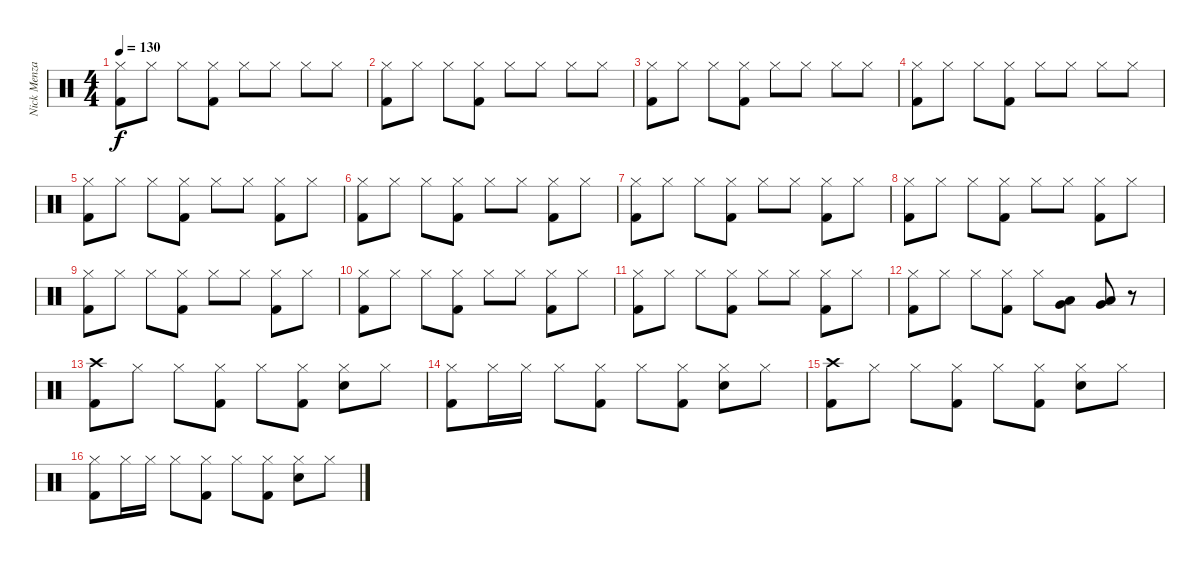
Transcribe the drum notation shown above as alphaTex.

\track ("Nick Menza" "Nick Menza") {instrument percussion}
\staff {score}
\articulation defaults
\ts (4 4)
\tempo 130
\clef neutral
\ks c
("Hi-Hat (closed)" "Kick (hit) 2").8{dy f} "Hi-Hat (closed)".8 "Hi-Hat (closed)".8 ("Hi-Hat (closed)" "Kick (hit) 2").8 "Hi-Hat (closed)".8 "Hi-Hat (closed)".8 "Hi-Hat (closed)".8 "Hi-Hat (closed)".8 |
("Hi-Hat (closed)" "Kick (hit) 2").8 "Hi-Hat (closed)".8 "Hi-Hat (closed)".8 ("Hi-Hat (closed)" "Kick (hit) 2").8 "Hi-Hat (closed)".8 "Hi-Hat (closed)".8 "Hi-Hat (closed)".8 "Hi-Hat (closed)".8 |
("Hi-Hat (closed)" "Kick (hit) 2").8 "Hi-Hat (closed)".8 "Hi-Hat (closed)".8 ("Hi-Hat (closed)" "Kick (hit) 2").8 "Hi-Hat (closed)".8 "Hi-Hat (closed)".8 "Hi-Hat (closed)".8 "Hi-Hat (closed)".8 |
("Hi-Hat (closed)" "Kick (hit) 2").8 "Hi-Hat (closed)".8 "Hi-Hat (closed)".8 ("Hi-Hat (closed)" "Kick (hit) 2").8 "Hi-Hat (closed)".8 "Hi-Hat (closed)".8 "Hi-Hat (closed)".8 "Hi-Hat (closed)".8 |
("Hi-Hat (closed)" "Kick (hit) 2").8 "Hi-Hat (closed)".8 "Hi-Hat (closed)".8 ("Hi-Hat (closed)" "Kick (hit) 2").8 "Hi-Hat (closed)".8 "Hi-Hat (closed)".8 ("Hi-Hat (closed)" "Kick (hit) 2").8 "Hi-Hat (closed)".8 |
("Hi-Hat (closed)" "Kick (hit) 2").8 "Hi-Hat (closed)".8 "Hi-Hat (closed)".8 ("Hi-Hat (closed)" "Kick (hit) 2").8 "Hi-Hat (closed)".8 "Hi-Hat (closed)".8 ("Hi-Hat (closed)" "Kick (hit) 2").8 "Hi-Hat (closed)".8 |
("Hi-Hat (closed)" "Kick (hit) 2").8 "Hi-Hat (closed)".8 "Hi-Hat (closed)".8 ("Hi-Hat (closed)" "Kick (hit) 2").8 "Hi-Hat (closed)".8 "Hi-Hat (closed)".8 ("Hi-Hat (closed)" "Kick (hit) 2").8 "Hi-Hat (closed)".8 |
("Hi-Hat (closed)" "Kick (hit) 2").8 "Hi-Hat (closed)".8 "Hi-Hat (closed)".8 ("Hi-Hat (closed)" "Kick (hit) 2").8 "Hi-Hat (closed)".8 "Hi-Hat (closed)".8 ("Hi-Hat (closed)" "Kick (hit) 2").8 "Hi-Hat (closed)".8 |
("Hi-Hat (closed)" "Kick (hit) 2").8 "Hi-Hat (closed)".8 "Hi-Hat (closed)".8 ("Hi-Hat (closed)" "Kick (hit) 2").8 "Hi-Hat (closed)".8 "Hi-Hat (closed)".8 ("Hi-Hat (closed)" "Kick (hit) 2").8 "Hi-Hat (closed)".8 |
("Hi-Hat (closed)" "Kick (hit) 2").8 "Hi-Hat (closed)".8 "Hi-Hat (closed)".8 ("Hi-Hat (closed)" "Kick (hit) 2").8 "Hi-Hat (closed)".8 "Hi-Hat (closed)".8 ("Hi-Hat (closed)" "Kick (hit) 2").8 "Hi-Hat (closed)".8 |
("Hi-Hat (closed)" "Kick (hit) 2").8 "Hi-Hat (closed)".8 "Hi-Hat (closed)".8 ("Hi-Hat (closed)" "Kick (hit) 2").8 "Hi-Hat (closed)".8 "Hi-Hat (closed)".8 ("Hi-Hat (closed)" "Kick (hit) 2").8 "Hi-Hat (closed)".8 |
("Hi-Hat (closed)" "Kick (hit) 2").8 "Hi-Hat (closed)".8 "Hi-Hat (closed)".8 ("Hi-Hat (closed)" "Kick (hit) 2").8 "Hi-Hat (closed)".8 ("Very Low Tom (hit)" "Low Tom (hit)").8 ("Very Low Tom (hit)" "Low Tom (hit)").8 r.8 |
("Crash high (hit)" "Kick (hit) 2").8 "Hi-Hat (closed)".8 "Hi-Hat (closed)".8 ("Hi-Hat (closed)" "Kick (hit) 2").8 "Hi-Hat (closed)".8 ("Hi-Hat (closed)" "Kick (hit) 2").8 ("Hi-Hat (closed)" "Electric Snare (hit)").8 "Hi-Hat (closed)".8 |
("Hi-Hat (closed)" "Kick (hit) 2").8 "Hi-Hat (closed)".16 "Hi-Hat (closed)".16 "Hi-Hat (closed)".8 ("Hi-Hat (closed)" "Kick (hit) 2").8 "Hi-Hat (closed)".8 ("Hi-Hat (closed)" "Kick (hit) 2").8 ("Hi-Hat (closed)" "Electric Snare (hit)").8 "Hi-Hat (closed)".8 |
("Crash high (hit)" "Kick (hit) 2").8 "Hi-Hat (closed)".8 "Hi-Hat (closed)".8 ("Hi-Hat (closed)" "Kick (hit) 2").8 "Hi-Hat (closed)".8 ("Hi-Hat (closed)" "Kick (hit) 2").8 ("Hi-Hat (closed)" "Electric Snare (hit)").8 "Hi-Hat (closed)".8 |
("Hi-Hat (closed)" "Kick (hit) 2").8 "Hi-Hat (closed)".16 "Hi-Hat (closed)".16 "Hi-Hat (closed)".8 ("Hi-Hat (closed)" "Kick (hit) 2").8 "Hi-Hat (closed)".8 ("Hi-Hat (closed)" "Kick (hit) 2").8 ("Hi-Hat (closed)" "Electric Snare (hit)").8 "Hi-Hat (closed)".8
